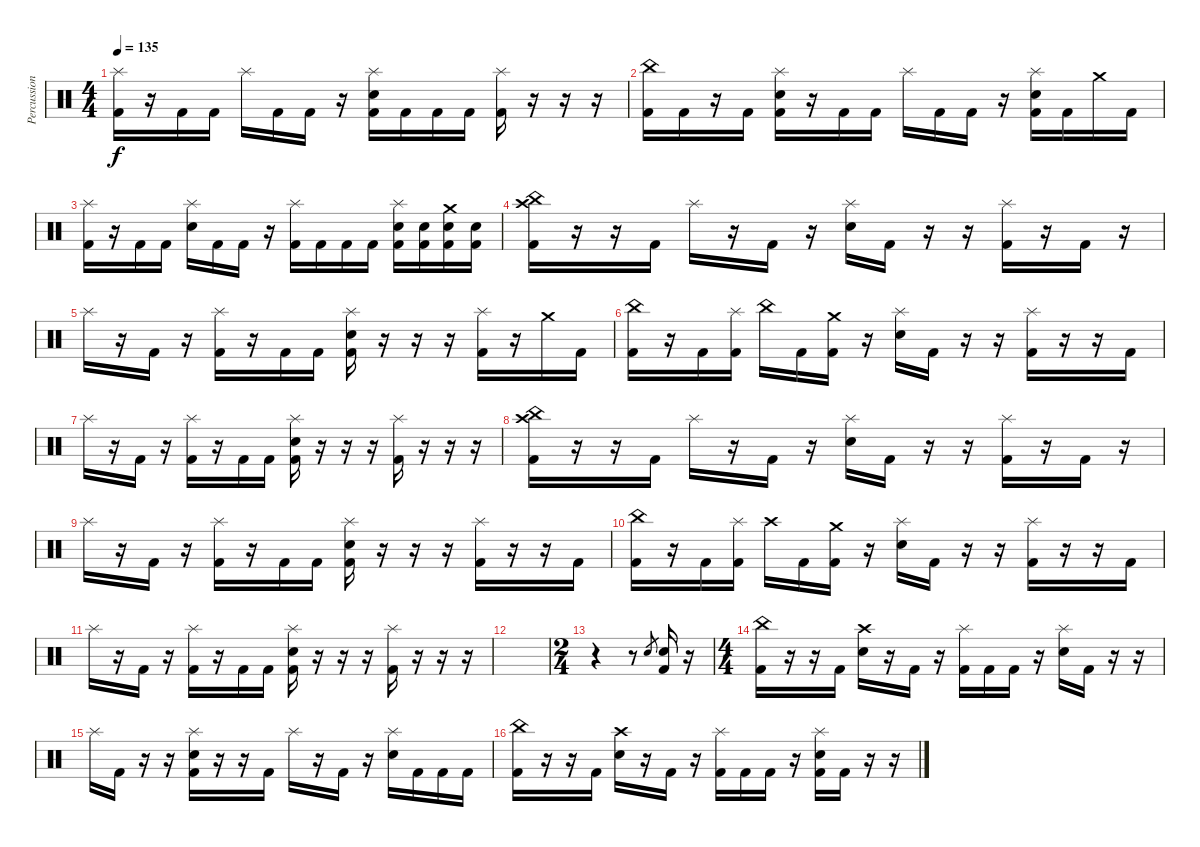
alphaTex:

\track ("Percussion" "Percussion") {instrument percussion}
\staff {score}
\articulation defaults
\ts (4 4)
\tempo 135
\clef neutral
\ks c
("Splash (hit)" "Kick (hit) 2").16{dy f} r.16 "Kick (hit) 2".16 "Kick (hit) 2".16 "Splash (hit)".16 "Kick (hit) 2".16 "Kick (hit) 2".16 r.16 ("Splash (hit)" "Electric Snare (hit)" "Kick (hit) 2").16 "Kick (hit) 2".16 "Kick (hit) 2".16 "Kick (hit) 2".16 ("Splash (hit)" "Kick (hit) 2").16 r.16 r.16 r.16 |
("China (hit)" "Kick (hit) 2").16 "Kick (hit) 2".16 r.16 "Kick (hit) 2".16 ("Splash (hit)" "Electric Snare (hit)" "Kick (hit) 2").16 r.16 "Kick (hit) 2".16 "Kick (hit) 2".16 "Splash (hit)".16 "Kick (hit) 2".16 "Kick (hit) 2".16 r.16 ("Splash (hit)" "Electric Snare (hit)" "Kick (hit) 2").16 "Kick (hit) 2".16 "Crash medium (hit)".16 "Kick (hit) 2".16 |
("Splash (hit)" "Kick (hit) 2").16 r.16 "Kick (hit) 2".16 "Kick (hit) 2".16 ("Splash (hit)" "Electric Snare (hit)").16 "Kick (hit) 2".16 "Kick (hit) 2".16 r.16 ("Splash (hit)" "Kick (hit) 2").16 "Kick (hit) 2".16 "Kick (hit) 2".16 "Kick (hit) 2".16 ("Splash (hit)" "Electric Snare (hit)" "Kick (hit) 2").16 ("Electric Snare (hit)" "Kick (hit) 2").16 ("Crash medium (hit)" "Electric Snare (hit)" "Kick (hit) 2").16 ("Electric Snare (hit)" "Kick (hit) 2").16 |
("China (hit)" "Crash high (hit)" "Kick (hit) 2").16 r.16 r.16 "Kick (hit) 2".16 "Splash (hit)".16 r.16 "Kick (hit) 2".16 r.16 ("Splash (hit)" "Electric Snare (hit)").16 "Kick (hit) 2".16 r.16 r.16 ("Splash (hit)" "Kick (hit) 2").16 r.16 "Kick (hit) 2".16 r.16 |
"Splash (hit)".16 r.16 "Kick (hit) 2".16 r.16 ("Splash (hit)" "Kick (hit) 2").16 r.16 "Kick (hit) 2".16 "Kick (hit) 2".16 ("Splash (hit)" "Electric Snare (hit)" "Kick (hit) 2").16 r.16 r.16 r.16 ("Splash (hit)" "Kick (hit) 2").16 r.16 "Crash medium (hit)".16 "Kick (hit) 2".16 |
("China (hit)" "Kick (hit) 2").16 r.16 "Kick (hit) 2".16 ("Splash (hit)" "Kick (hit) 2").16 "China (hit)".16 "Kick (hit) 2".16 ("Crash medium (hit)" "Kick (hit) 2").16 r.16 ("Splash (hit)" "Electric Snare (hit)").16 "Kick (hit) 2".16 r.16 r.16 ("Splash (hit)" "Kick (hit) 2").16 r.16 r.16 "Kick (hit) 2".16 |
"Splash (hit)".16 r.16 "Kick (hit) 2".16 r.16 ("Splash (hit)" "Kick (hit) 2").16 r.16 "Kick (hit) 2".16 "Kick (hit) 2".16 ("Splash (hit)" "Electric Snare (hit)" "Kick (hit) 2").16 r.16 r.16 r.16 ("Splash (hit)" "Kick (hit) 2").16 r.16 r.16 r.16 |
("China (hit)" "Crash high (hit)" "Kick (hit) 2").16 r.16 r.16 "Kick (hit) 2".16 "Splash (hit)".16 r.16 "Kick (hit) 2".16 r.16 ("Splash (hit)" "Electric Snare (hit)").16 "Kick (hit) 2".16 r.16 r.16 ("Splash (hit)" "Kick (hit) 2").16 r.16 "Kick (hit) 2".16 r.16 |
"Splash (hit)".16 r.16 "Kick (hit) 2".16 r.16 ("Splash (hit)" "Kick (hit) 2").16 r.16 "Kick (hit) 2".16 "Kick (hit) 2".16 ("Splash (hit)" "Electric Snare (hit)" "Kick (hit) 2").16 r.16 r.16 r.16 ("Splash (hit)" "Kick (hit) 2").16 r.16 r.16 "Kick (hit) 2".16 |
("China (hit)" "Kick (hit) 2").16 r.16 "Kick (hit) 2".16 ("Splash (hit)" "Kick (hit) 2").16 "Crash high (hit)".16 "Kick (hit) 2".16 ("Crash medium (hit)" "Kick (hit) 2").16 r.16 ("Splash (hit)" "Electric Snare (hit)").16 "Kick (hit) 2".16 r.16 r.16 ("Splash (hit)" "Kick (hit) 2").16 r.16 r.16 "Kick (hit) 2".16 |
"Splash (hit)".16 r.16 "Kick (hit) 2".16 r.16 ("Splash (hit)" "Kick (hit) 2").16 r.16 "Kick (hit) 2".16 "Kick (hit) 2".16 ("Splash (hit)" "Electric Snare (hit)" "Kick (hit) 2").16 r.16 r.16 r.16 ("Splash (hit)" "Kick (hit) 2").16 r.16 r.16 r.16 |
|
\ts (2 4)
r.4 r.8 "Electric Snare (hit)".8{gr} ("Electric Snare (hit)" "Kick (hit) 2").16 r.16 |
\ts (4 4)
("China (hit)" "Kick (hit) 2").16 r.16 r.16 "Kick (hit) 2".16 ("Crash high (hit)" "Electric Snare (hit)").16 r.16 "Kick (hit) 2".16 r.16 ("Splash (hit)" "Kick (hit) 2").16 "Kick (hit) 2".16 "Kick (hit) 2".16 r.16 ("Splash (hit)" "Electric Snare (hit)").16 "Kick (hit) 2".16 r.16 r.16 |
"Splash (hit)".16 "Kick (hit) 2".16 r.16 r.16 ("Splash (hit)" "Electric Snare (hit)" "Kick (hit) 2").16 r.16 r.16 "Kick (hit) 2".16 "Splash (hit)".16 r.16 "Kick (hit) 2".16 r.16 ("Splash (hit)" "Electric Snare (hit)").16 "Kick (hit) 2".16 "Kick (hit) 2".16 "Kick (hit) 2".16 |
("China (hit)" "Kick (hit) 2").16 r.16 r.16 "Kick (hit) 2".16 ("Crash high (hit)" "Electric Snare (hit)").16 r.16 "Kick (hit) 2".16 r.16 ("Splash (hit)" "Kick (hit) 2").16 "Kick (hit) 2".16 "Kick (hit) 2".16 r.16 ("Splash (hit)" "Electric Snare (hit)" "Kick (hit) 2").16 "Kick (hit) 2".16 r.16 r.16
